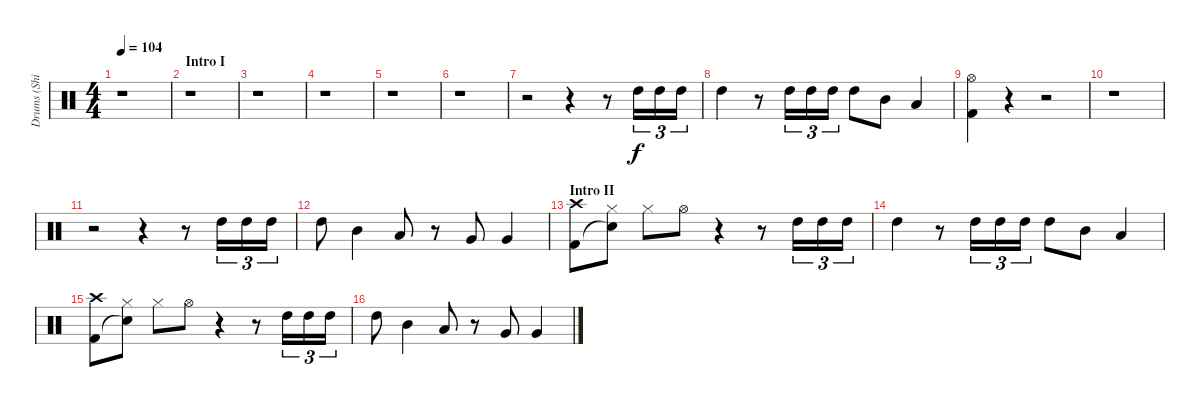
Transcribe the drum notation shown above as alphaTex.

\track ("Drums (Shinya)" "Drums (Shi") {instrument percussion}
\staff {score}
\articulation defaults
\ts (4 4)
\tempo 104
\clef neutral
\ks c
r.1{dy f} |
\section ("" "Intro I")
r.1 |
r.1 |
r.1 |
r.1 |
r.1 |
r.2 r.4 r.8 "High Tom (hit)".16{tu (3 2)} "High Tom (hit)".16{tu (3 2)} "High Tom (hit)".16{tu (3 2)} |
"High Tom (hit)".4 r.8 "High Tom (hit)".16{tu (3 2)} "High Tom (hit)".16{tu (3 2)} "High Tom (hit)".16{tu (3 2)} "High Tom (hit)".8 "Mid Tom (hit)".8 "Low Tom (hit)".4 |
("Hi-Hat (open)" "Kick (hit) 2").4 r.4 r.2 |
r.1 |
r.2 r.4 r.8 "High Tom (hit)".16{tu (3 2)} "High Tom (hit)".16{tu (3 2)} "High Tom (hit)".16{tu (3 2)} |
"High Tom (hit)".8 "Mid Tom (hit)".4 "Low Tom (hit)".8 r.8 "Very Low Tom (hit)".8 "Very Low Tom (hit)".4 |
\section ("" "Intro II")
("Crash high (hit)" "Kick (hit) 2").8 ("Hi-Hat (closed)" "Snare (hit)"{t}).8 "Hi-Hat (closed)".8 "Hi-Hat (open)".8 r.4 r.8 "High Tom (hit)".16{tu (3 2)} "High Tom (hit)".16{tu (3 2)} "High Tom (hit)".16{tu (3 2)} |
"High Tom (hit)".4 r.8 "High Tom (hit)".16{tu (3 2)} "High Tom (hit)".16{tu (3 2)} "High Tom (hit)".16{tu (3 2)} "High Tom (hit)".8 "Mid Tom (hit)".8 "Low Tom (hit)".4 |
("Crash high (hit)" "Kick (hit) 2").8 ("Hi-Hat (closed)" "Snare (hit)"{t}).8 "Hi-Hat (closed)".8 "Hi-Hat (open)".8 r.4 r.8 "High Tom (hit)".16{tu (3 2)} "High Tom (hit)".16{tu (3 2)} "High Tom (hit)".16{tu (3 2)} |
"High Tom (hit)".8 "Mid Tom (hit)".4 "Low Tom (hit)".8 r.8 "Very Low Tom (hit)".8 "Very Low Tom (hit)".4
